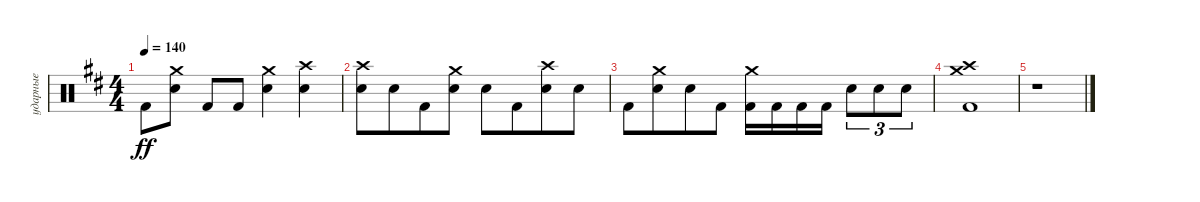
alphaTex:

\track ("ударные" "ударные") {instrument percussion}
\staff {score}
\articulation defaults
\ts (4 4)
\tempo 140
\clef neutral
\ks bminor "Kick (hit) 2".8{dy ff}
("Snare (hit) 2" "Crash medium (hit)").8 "Kick (hit) 2".8 "Kick (hit) 2".8 ("Snare (hit) 2" "Crash medium (hit)").4 ("Snare (hit) 2" "Crash high (hit)").4 |
("Snare (hit) 2" "Crash high (hit)").8 "Snare (hit) 2".8{beam merge} "Kick (hit) 2".8 ("Snare (hit) 2" "Crash medium (hit)").8 "Snare (hit) 2".8{beam merge} "Kick (hit) 2".8{beam merge} ("Snare (hit) 2" "Crash high (hit)").8 "Snare (hit) 2".8 |
"Kick (hit) 2".8 ("Snare (hit) 2" "Crash medium (hit)").8{beam merge} "Snare (hit) 2".8 "Kick (hit) 2".8 ("Kick (hit) 2" "Crash medium (hit)").16 "Kick (hit) 2".16 "Kick (hit) 2".16 "Kick (hit) 2".16 "Snare (hit) 2".8{tu (3 2)} "Snare (hit) 2".8{tu (3 2)} "Snare (hit) 2".8{tu (3 2)} |
("Kick (hit) 2" "Crash high (hit)" "Crash medium (hit)").1 |
r.1
